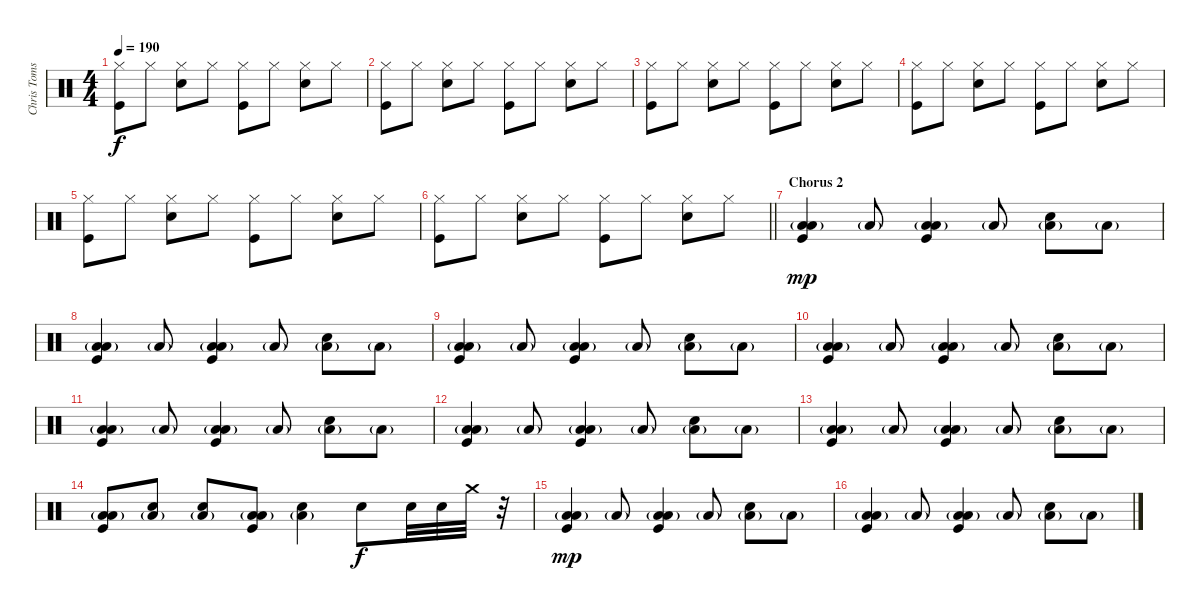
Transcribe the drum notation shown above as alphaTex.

\track ("Chris Tomson - Drums" "Chris Toms") {instrument percussion}
\staff {score}
\articulation defaults
\ts (4 4)
\tempo 190
\clef neutral
\ks c
("Kick (hit)" "Hi-Hat (closed)").8{dy f} "Hi-Hat (closed)".8 ("Snare (hit) 2" "Hi-Hat (closed)").8 "Hi-Hat (closed)".8 ("Kick (hit)" "Hi-Hat (closed)").8 "Hi-Hat (closed)".8 ("Snare (hit) 2" "Hi-Hat (closed)").8 "Hi-Hat (closed)".8 |
("Kick (hit)" "Hi-Hat (closed)").8 "Hi-Hat (closed)".8 ("Snare (hit) 2" "Hi-Hat (closed)").8 "Hi-Hat (closed)".8 ("Kick (hit)" "Hi-Hat (closed)").8 "Hi-Hat (closed)".8 ("Snare (hit) 2" "Hi-Hat (closed)").8 "Hi-Hat (closed)".8 |
("Kick (hit)" "Hi-Hat (closed)").8 "Hi-Hat (closed)".8 ("Snare (hit) 2" "Hi-Hat (closed)").8 "Hi-Hat (closed)".8 ("Kick (hit)" "Hi-Hat (closed)").8 "Hi-Hat (closed)".8 ("Snare (hit) 2" "Hi-Hat (closed)").8 "Hi-Hat (closed)".8 |
("Kick (hit)" "Hi-Hat (closed)").8 "Hi-Hat (closed)".8 ("Snare (hit) 2" "Hi-Hat (closed)").8 "Hi-Hat (closed)".8 ("Kick (hit)" "Hi-Hat (closed)").8 "Hi-Hat (closed)".8 ("Snare (hit) 2" "Hi-Hat (closed)").8 "Hi-Hat (closed)".8 |
("Kick (hit)" "Hi-Hat (closed)").8 "Hi-Hat (closed)".8 ("Snare (hit) 2" "Hi-Hat (closed)").8 "Hi-Hat (closed)".8 ("Kick (hit)" "Hi-Hat (closed)").8 "Hi-Hat (closed)".8 ("Snare (hit) 2" "Hi-Hat (closed)").8 "Hi-Hat (closed)".8 |
\barLineRight lightlight
("Kick (hit)" "Hi-Hat (closed)").8 "Hi-Hat (closed)".8 ("Snare (hit) 2" "Hi-Hat (closed)").8 "Hi-Hat (closed)".8 ("Kick (hit)" "Hi-Hat (closed)").8 "Hi-Hat (closed)".8 ("Snare (hit) 2" "Hi-Hat (closed)").8 "Hi-Hat (closed)".8 |
\section ("" "Chorus 2")
("Kick (hit)" "Low Tom (hit)" "Low Floor Tom (hit)"{g}).4{dy mp} "Low Floor Tom (hit)"{g}.8 ("Kick (hit)" "Low Tom (hit)" "Low Floor Tom (hit)"{g}).4 "Low Floor Tom (hit)"{g}.8 ("Snare (hit) 2" "Low Floor Tom (hit)"{g}).8 "Low Floor Tom (hit)"{g}.8 |
("Kick (hit)" "Low Tom (hit)" "Low Floor Tom (hit)"{g}).4 "Low Floor Tom (hit)"{g}.8 ("Kick (hit)" "Low Tom (hit)" "Low Floor Tom (hit)"{g}).4 "Low Floor Tom (hit)"{g}.8 ("Snare (hit) 2" "Low Floor Tom (hit)"{g}).8 "Low Floor Tom (hit)"{g}.8 |
("Kick (hit)" "Low Tom (hit)" "Low Floor Tom (hit)"{g}).4 "Low Floor Tom (hit)"{g}.8 ("Kick (hit)" "Low Tom (hit)" "Low Floor Tom (hit)"{g}).4 "Low Floor Tom (hit)"{g}.8 ("Snare (hit) 2" "Low Floor Tom (hit)"{g}).8 "Low Floor Tom (hit)"{g}.8 |
("Kick (hit)" "Low Tom (hit)" "Low Floor Tom (hit)"{g}).4 "Low Floor Tom (hit)"{g}.8 ("Kick (hit)" "Low Tom (hit)" "Low Floor Tom (hit)"{g}).4 "Low Floor Tom (hit)"{g}.8 ("Snare (hit) 2" "Low Floor Tom (hit)"{g}).8 "Low Floor Tom (hit)"{g}.8 |
("Kick (hit)" "Low Tom (hit)" "Low Floor Tom (hit)"{g}).4 "Low Floor Tom (hit)"{g}.8 ("Kick (hit)" "Low Tom (hit)" "Low Floor Tom (hit)"{g}).4 "Low Floor Tom (hit)"{g}.8 ("Snare (hit) 2" "Low Floor Tom (hit)"{g}).8 "Low Floor Tom (hit)"{g}.8 |
("Kick (hit)" "Low Tom (hit)" "Low Floor Tom (hit)"{g}).4 "Low Floor Tom (hit)"{g}.8 ("Kick (hit)" "Low Tom (hit)" "Low Floor Tom (hit)"{g}).4 "Low Floor Tom (hit)"{g}.8 ("Snare (hit) 2" "Low Floor Tom (hit)"{g}).8 "Low Floor Tom (hit)"{g}.8 |
("Kick (hit)" "Low Tom (hit)" "Low Floor Tom (hit)"{g}).4 "Low Floor Tom (hit)"{g}.8 ("Kick (hit)" "Low Tom (hit)" "Low Floor Tom (hit)"{g}).4 "Low Floor Tom (hit)"{g}.8 ("Snare (hit) 2" "Low Floor Tom (hit)"{g}).8 "Low Floor Tom (hit)"{g}.8 |
("Kick (hit)" "Low Tom (hit)" "Low Floor Tom (hit)"{g}).8 ("Snare (hit) 2" "Low Floor Tom (hit)"{g}).8 ("Snare (hit) 2" "Low Floor Tom (hit)"{g}).8 ("Kick (hit)" "Low Tom (hit)" "Low Floor Tom (hit)"{g}).8 ("Snare (hit) 2" "Low Floor Tom (hit)"{g}).4 "Snare (hit) 2".8{dy f} "Snare (hit) 2".32 "Snare (hit) 2".32 "Crash medium (hit)".32 r.32 |
("Kick (hit)" "Low Tom (hit)" "Low Floor Tom (hit)"{g}).4{dy mp} "Low Floor Tom (hit)"{g}.8 ("Kick (hit)" "Low Tom (hit)" "Low Floor Tom (hit)"{g}).4 "Low Floor Tom (hit)"{g}.8 ("Snare (hit) 2" "Low Floor Tom (hit)"{g}).8 "Low Floor Tom (hit)"{g}.8 |
("Kick (hit)" "Low Tom (hit)" "Low Floor Tom (hit)"{g}).4 "Low Floor Tom (hit)"{g}.8 ("Kick (hit)" "Low Tom (hit)" "Low Floor Tom (hit)"{g}).4 "Low Floor Tom (hit)"{g}.8 ("Snare (hit) 2" "Low Floor Tom (hit)"{g}).8 "Low Floor Tom (hit)"{g}.8
